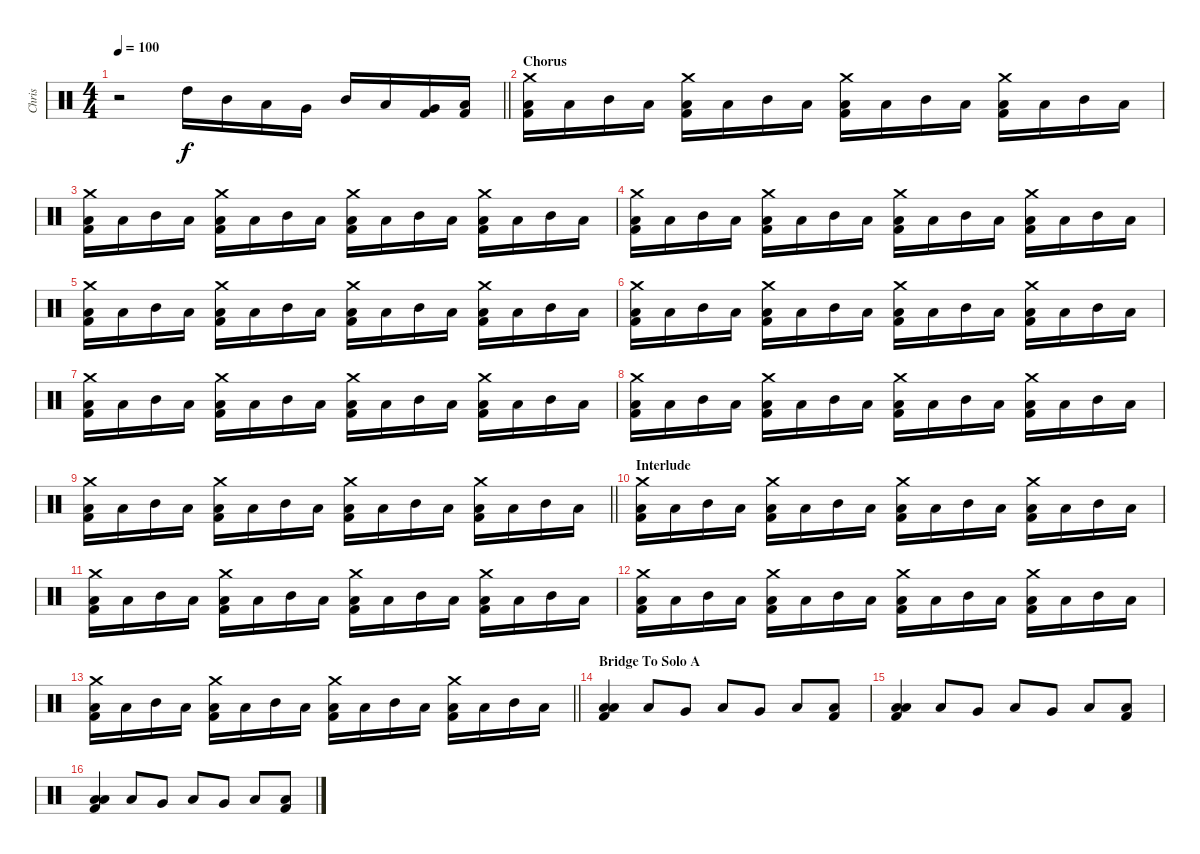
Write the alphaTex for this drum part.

\track ("Chris" "Chris") {instrument percussion}
\staff {score}
\articulation defaults
\ts (4 4)
\tempo 100
\clef neutral
\barLineRight lightlight
\ks c
r.2{dy f} "High Tom (hit)".16 "Mid Tom (hit)".16 "Low Tom (hit)".16 "Very Low Tom (hit)".16 "Mid Tom (hit)".16 "Low Tom (hit)".16 ("Very Low Tom (hit)" "Kick (hit) 2").16 ("Low Floor Tom (hit)" "Kick (hit) 2").16 |
\section ("" "Chorus")
("Crash medium (hit)" "Low Tom (hit)" "Kick (hit) 2").16 "Low Tom (hit)".16 "Mid Tom (hit)".16 "Low Tom (hit)".16 ("Crash medium (hit)" "Low Tom (hit)" "Kick (hit) 2").16 "Low Tom (hit)".16 "Mid Tom (hit)".16 "Low Tom (hit)".16 ("Crash medium (hit)" "Low Tom (hit)" "Kick (hit) 2").16 "Low Tom (hit)".16 "Mid Tom (hit)".16 "Low Tom (hit)".16 ("Crash medium (hit)" "Low Tom (hit)" "Kick (hit) 2").16 "Low Tom (hit)".16 "Mid Tom (hit)".16 "Low Tom (hit)".16 |
("Crash medium (hit)" "Low Tom (hit)" "Kick (hit) 2").16 "Low Tom (hit)".16 "Mid Tom (hit)".16 "Low Tom (hit)".16 ("Crash medium (hit)" "Low Tom (hit)" "Kick (hit) 2").16 "Low Tom (hit)".16 "Mid Tom (hit)".16 "Low Tom (hit)".16 ("Crash medium (hit)" "Low Tom (hit)" "Kick (hit) 2").16 "Low Tom (hit)".16 "Mid Tom (hit)".16 "Low Tom (hit)".16 ("Crash medium (hit)" "Low Tom (hit)" "Kick (hit) 2").16 "Low Tom (hit)".16 "Mid Tom (hit)".16 "Low Tom (hit)".16 |
("Crash medium (hit)" "Low Tom (hit)" "Kick (hit) 2").16 "Low Tom (hit)".16 "Mid Tom (hit)".16 "Low Tom (hit)".16 ("Crash medium (hit)" "Low Tom (hit)" "Kick (hit) 2").16 "Low Tom (hit)".16 "Mid Tom (hit)".16 "Low Tom (hit)".16 ("Crash medium (hit)" "Low Tom (hit)" "Kick (hit) 2").16 "Low Tom (hit)".16 "Mid Tom (hit)".16 "Low Tom (hit)".16 ("Crash medium (hit)" "Low Tom (hit)" "Kick (hit) 2").16 "Low Tom (hit)".16 "Mid Tom (hit)".16 "Low Tom (hit)".16 |
("Crash medium (hit)" "Low Tom (hit)" "Kick (hit) 2").16 "Low Tom (hit)".16 "Mid Tom (hit)".16 "Low Tom (hit)".16 ("Crash medium (hit)" "Low Tom (hit)" "Kick (hit) 2").16 "Low Tom (hit)".16 "Mid Tom (hit)".16 "Low Tom (hit)".16 ("Crash medium (hit)" "Low Tom (hit)" "Kick (hit) 2").16 "Low Tom (hit)".16 "Mid Tom (hit)".16 "Low Tom (hit)".16 ("Crash medium (hit)" "Low Tom (hit)" "Kick (hit) 2").16 "Low Tom (hit)".16 "Mid Tom (hit)".16 "Low Tom (hit)".16 |
("Crash medium (hit)" "Low Tom (hit)" "Kick (hit) 2").16 "Low Tom (hit)".16 "Mid Tom (hit)".16 "Low Tom (hit)".16 ("Crash medium (hit)" "Low Tom (hit)" "Kick (hit) 2").16 "Low Tom (hit)".16 "Mid Tom (hit)".16 "Low Tom (hit)".16 ("Crash medium (hit)" "Low Tom (hit)" "Kick (hit) 2").16 "Low Tom (hit)".16 "Mid Tom (hit)".16 "Low Tom (hit)".16 ("Crash medium (hit)" "Low Tom (hit)" "Kick (hit) 2").16 "Low Tom (hit)".16 "Mid Tom (hit)".16 "Low Tom (hit)".16 |
("Crash medium (hit)" "Low Tom (hit)" "Kick (hit) 2").16 "Low Tom (hit)".16 "Mid Tom (hit)".16 "Low Tom (hit)".16 ("Crash medium (hit)" "Low Tom (hit)" "Kick (hit) 2").16 "Low Tom (hit)".16 "Mid Tom (hit)".16 "Low Tom (hit)".16 ("Crash medium (hit)" "Low Tom (hit)" "Kick (hit) 2").16 "Low Tom (hit)".16 "Mid Tom (hit)".16 "Low Tom (hit)".16 ("Crash medium (hit)" "Low Tom (hit)" "Kick (hit) 2").16 "Low Tom (hit)".16 "Mid Tom (hit)".16 "Low Tom (hit)".16 |
("Crash medium (hit)" "Low Tom (hit)" "Kick (hit) 2").16 "Low Tom (hit)".16 "Mid Tom (hit)".16 "Low Tom (hit)".16 ("Crash medium (hit)" "Low Tom (hit)" "Kick (hit) 2").16 "Low Tom (hit)".16 "Mid Tom (hit)".16 "Low Tom (hit)".16 ("Crash medium (hit)" "Low Tom (hit)" "Kick (hit) 2").16 "Low Tom (hit)".16 "Mid Tom (hit)".16 "Low Tom (hit)".16 ("Crash medium (hit)" "Low Tom (hit)" "Kick (hit) 2").16 "Low Tom (hit)".16 "Mid Tom (hit)".16 "Low Tom (hit)".16 |
\barLineRight lightlight
("Crash medium (hit)" "Low Tom (hit)" "Kick (hit) 2").16 "Low Tom (hit)".16 "Mid Tom (hit)".16 "Low Tom (hit)".16 ("Crash medium (hit)" "Low Tom (hit)" "Kick (hit) 2").16 "Low Tom (hit)".16 "Mid Tom (hit)".16 "Low Tom (hit)".16 ("Crash medium (hit)" "Low Tom (hit)" "Kick (hit) 2").16 "Low Tom (hit)".16 "Mid Tom (hit)".16 "Low Tom (hit)".16 ("Crash medium (hit)" "Low Tom (hit)" "Kick (hit) 2").16 "Low Tom (hit)".16 "Mid Tom (hit)".16 "Low Tom (hit)".16 |
\section ("" "Interlude")
("Crash medium (hit)" "Low Tom (hit)" "Kick (hit) 2").16 "Low Tom (hit)".16 "Mid Tom (hit)".16 "Low Tom (hit)".16 ("Crash medium (hit)" "Low Tom (hit)" "Kick (hit) 2").16 "Low Tom (hit)".16 "Mid Tom (hit)".16 "Low Tom (hit)".16 ("Crash medium (hit)" "Low Tom (hit)" "Kick (hit) 2").16 "Low Tom (hit)".16 "Mid Tom (hit)".16 "Low Tom (hit)".16 ("Crash medium (hit)" "Low Tom (hit)" "Kick (hit) 2").16 "Low Tom (hit)".16 "Mid Tom (hit)".16 "Low Tom (hit)".16 |
("Crash medium (hit)" "Low Tom (hit)" "Kick (hit) 2").16 "Low Tom (hit)".16 "Mid Tom (hit)".16 "Low Tom (hit)".16 ("Crash medium (hit)" "Low Tom (hit)" "Kick (hit) 2").16 "Low Tom (hit)".16 "Mid Tom (hit)".16 "Low Tom (hit)".16 ("Crash medium (hit)" "Low Tom (hit)" "Kick (hit) 2").16 "Low Tom (hit)".16 "Mid Tom (hit)".16 "Low Tom (hit)".16 ("Crash medium (hit)" "Low Tom (hit)" "Kick (hit) 2").16 "Low Tom (hit)".16 "Mid Tom (hit)".16 "Low Tom (hit)".16 |
("Crash medium (hit)" "Low Tom (hit)" "Kick (hit) 2").16 "Low Tom (hit)".16 "Mid Tom (hit)".16 "Low Tom (hit)".16 ("Crash medium (hit)" "Low Tom (hit)" "Kick (hit) 2").16 "Low Tom (hit)".16 "Mid Tom (hit)".16 "Low Tom (hit)".16 ("Crash medium (hit)" "Low Tom (hit)" "Kick (hit) 2").16 "Low Tom (hit)".16 "Mid Tom (hit)".16 "Low Tom (hit)".16 ("Crash medium (hit)" "Low Tom (hit)" "Kick (hit) 2").16 "Low Tom (hit)".16 "Mid Tom (hit)".16 "Low Tom (hit)".16 |
\barLineRight lightlight
("Crash medium (hit)" "Low Tom (hit)" "Kick (hit) 2").16 "Low Tom (hit)".16 "Mid Tom (hit)".16 "Low Tom (hit)".16 ("Crash medium (hit)" "Low Tom (hit)" "Kick (hit) 2").16 "Low Tom (hit)".16 "Mid Tom (hit)".16 "Low Tom (hit)".16 ("Crash medium (hit)" "Low Tom (hit)" "Kick (hit) 2").16 "Low Tom (hit)".16 "Mid Tom (hit)".16 "Low Tom (hit)".16 ("Crash medium (hit)" "Low Tom (hit)" "Kick (hit) 2").16 "Low Tom (hit)".16 "Mid Tom (hit)".16 "Low Tom (hit)".16 |
\section ("" "Bridge To Solo A")
("Low Floor Tom (hit)" "Low Tom (hit)" "Kick (hit) 2").4 "Low Floor Tom (hit)".8 "Very Low Tom (hit)".8 "Low Tom (hit)".8 "Very Low Tom (hit)".8 "Low Floor Tom (hit)".8 ("Low Floor Tom (hit)" "Kick (hit) 2").8 |
("Low Floor Tom (hit)" "Low Tom (hit)" "Kick (hit) 2").4 "Low Floor Tom (hit)".8 "Very Low Tom (hit)".8 "Low Tom (hit)".8 "Very Low Tom (hit)".8 "Low Floor Tom (hit)".8 ("Low Floor Tom (hit)" "Kick (hit) 2").8 |
("Low Floor Tom (hit)" "Low Tom (hit)" "Kick (hit) 2").4 "Low Floor Tom (hit)".8 "Very Low Tom (hit)".8 "Low Tom (hit)".8 "Very Low Tom (hit)".8 "Low Floor Tom (hit)".8 ("Low Floor Tom (hit)" "Kick (hit) 2").8
